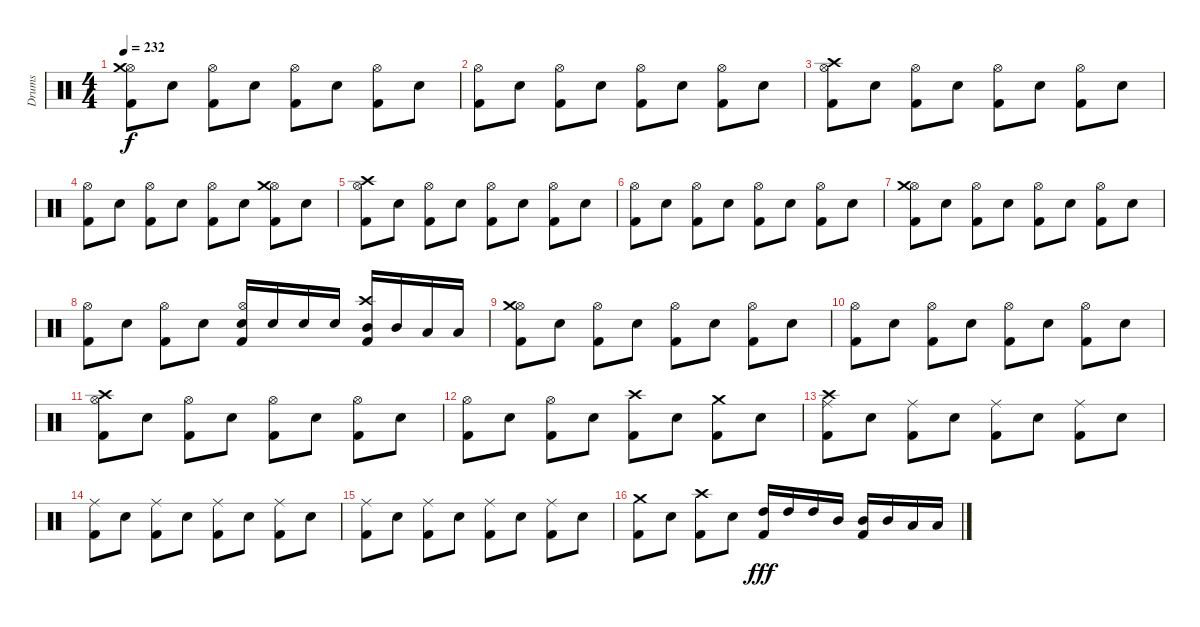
\track ("Drums" "Drums") {instrument percussion}
\staff {score}
\articulation defaults
\ts (4 4)
\tempo 232
\clef neutral
\ks c
("Kick (hit) 2" "Hi-Hat (open)" "Crash medium (hit)").8{dy f} "Snare (hit) 2".8 ("Kick (hit) 2" "Hi-Hat (open)").8 "Snare (hit) 2".8 ("Kick (hit) 2" "Hi-Hat (open)").8 "Snare (hit) 2".8 ("Kick (hit) 2" "Hi-Hat (open)").8 "Snare (hit) 2".8 |
("Kick (hit) 2" "Hi-Hat (open)").8 "Snare (hit) 2".8 ("Kick (hit) 2" "Hi-Hat (open)").8 "Snare (hit) 2".8 ("Kick (hit) 2" "Hi-Hat (open)").8 "Snare (hit) 2".8 ("Kick (hit) 2" "Hi-Hat (open)").8 "Snare (hit) 2".8 |
("Kick (hit) 2" "Hi-Hat (open)" "Crash high (hit)").8 "Snare (hit) 2".8 ("Kick (hit) 2" "Hi-Hat (open)").8 "Snare (hit) 2".8 ("Kick (hit) 2" "Hi-Hat (open)").8 "Snare (hit) 2".8 ("Kick (hit) 2" "Hi-Hat (open)").8 "Snare (hit) 2".8 |
("Kick (hit) 2" "Hi-Hat (open)").8 "Snare (hit) 2".8 ("Kick (hit) 2" "Hi-Hat (open)").8 "Snare (hit) 2".8 ("Kick (hit) 2" "Hi-Hat (open)").8 "Snare (hit) 2".8 ("Kick (hit) 2" "Hi-Hat (open)" "Crash medium (hit)").8 "Snare (hit) 2".8 |
("Kick (hit) 2" "Hi-Hat (open)" "Crash high (hit)").8 "Snare (hit) 2".8 ("Kick (hit) 2" "Hi-Hat (open)").8 "Snare (hit) 2".8 ("Kick (hit) 2" "Hi-Hat (open)").8 "Snare (hit) 2".8 ("Kick (hit) 2" "Hi-Hat (open)").8 "Snare (hit) 2".8 |
("Kick (hit) 2" "Hi-Hat (open)").8 "Snare (hit) 2".8 ("Kick (hit) 2" "Hi-Hat (open)").8 "Snare (hit) 2".8 ("Kick (hit) 2" "Hi-Hat (open)").8 "Snare (hit) 2".8 ("Kick (hit) 2" "Hi-Hat (open)").8 "Snare (hit) 2".8 |
("Kick (hit) 2" "Hi-Hat (open)" "Crash medium (hit)").8 "Snare (hit) 2".8 ("Kick (hit) 2" "Hi-Hat (open)").8 "Snare (hit) 2".8 ("Kick (hit) 2" "Hi-Hat (open)").8 "Snare (hit) 2".8 ("Kick (hit) 2" "Hi-Hat (open)").8 "Snare (hit) 2".8 |
("Kick (hit) 2" "Hi-Hat (open)").8 "Snare (hit) 2".8 ("Kick (hit) 2" "Hi-Hat (open)").8 "Snare (hit) 2".8 ("Kick (hit) 2" "Snare (hit) 2" "Hi-Hat (open)").16 "Snare (hit) 2".16 "Snare (hit) 2".16 "Snare (hit) 2".16 ("Kick (hit) 2" "Mid Tom (hit)" "Crash high (hit)").16 "Mid Tom (hit)".16 "Low Tom (hit)".16 "Low Tom (hit)".16 |
("Kick (hit) 2" "Hi-Hat (open)" "Crash medium (hit)").8 "Snare (hit) 2".8 ("Kick (hit) 2" "Hi-Hat (open)").8 "Snare (hit) 2".8 ("Kick (hit) 2" "Hi-Hat (open)").8 "Snare (hit) 2".8 ("Kick (hit) 2" "Hi-Hat (open)").8 "Snare (hit) 2".8 |
("Kick (hit) 2" "Hi-Hat (open)").8 "Snare (hit) 2".8 ("Kick (hit) 2" "Hi-Hat (open)").8 "Snare (hit) 2".8 ("Kick (hit) 2" "Hi-Hat (open)").8 "Snare (hit) 2".8 ("Kick (hit) 2" "Hi-Hat (open)").8 "Snare (hit) 2".8 |
("Kick (hit) 2" "Hi-Hat (open)" "Crash high (hit)").8 "Snare (hit) 2".8 ("Kick (hit) 2" "Hi-Hat (open)").8 "Snare (hit) 2".8 ("Kick (hit) 2" "Hi-Hat (open)").8 "Snare (hit) 2".8 ("Kick (hit) 2" "Hi-Hat (open)").8 "Snare (hit) 2".8 |
("Kick (hit) 2" "Hi-Hat (open)").8 "Snare (hit) 2".8 ("Kick (hit) 2" "Hi-Hat (open)").8 "Snare (hit) 2".8 ("Kick (hit) 2" "Crash high (hit)").8 "Snare (hit) 2".8 ("Kick (hit) 2" "Crash medium (hit)").8 "Snare (hit) 2".8 |
("Kick (hit) 2" "Ride (middle)" "Crash high (hit)").8 "Snare (hit) 2".8 ("Kick (hit) 2" "Ride (middle)").8 "Snare (hit) 2".8 ("Kick (hit) 2" "Ride (middle)").8 "Snare (hit) 2".8 ("Kick (hit) 2" "Ride (middle)").8 "Snare (hit) 2".8 |
("Kick (hit) 2" "Ride (middle)").8 "Snare (hit) 2".8 ("Kick (hit) 2" "Ride (middle)").8 "Snare (hit) 2".8 ("Kick (hit) 2" "Ride (middle)").8 "Snare (hit) 2".8 ("Kick (hit) 2" "Ride (middle)").8 "Snare (hit) 2".8 |
("Kick (hit) 2" "Ride (middle)").8 "Snare (hit) 2".8 ("Kick (hit) 2" "Ride (middle)").8 "Snare (hit) 2".8 ("Kick (hit) 2" "Ride (middle)").8 "Snare (hit) 2".8 ("Kick (hit) 2" "Ride (middle)").8 "Snare (hit) 2".8 |
("Kick (hit) 2" "Crash medium (hit)").8 "Snare (hit) 2".8 ("Kick (hit) 2" "Crash high (hit)").8 "Snare (hit) 2".8 ("Kick (hit) 2" "High Tom (hit)").16{dy fff} "High Tom (hit)".16 "High Tom (hit)".16 "Mid Tom (hit)".16 ("Kick (hit) 2" "Mid Tom (hit)").16 "Mid Tom (hit)".16 "Low Tom (hit)".16 "Low Tom (hit)".16
